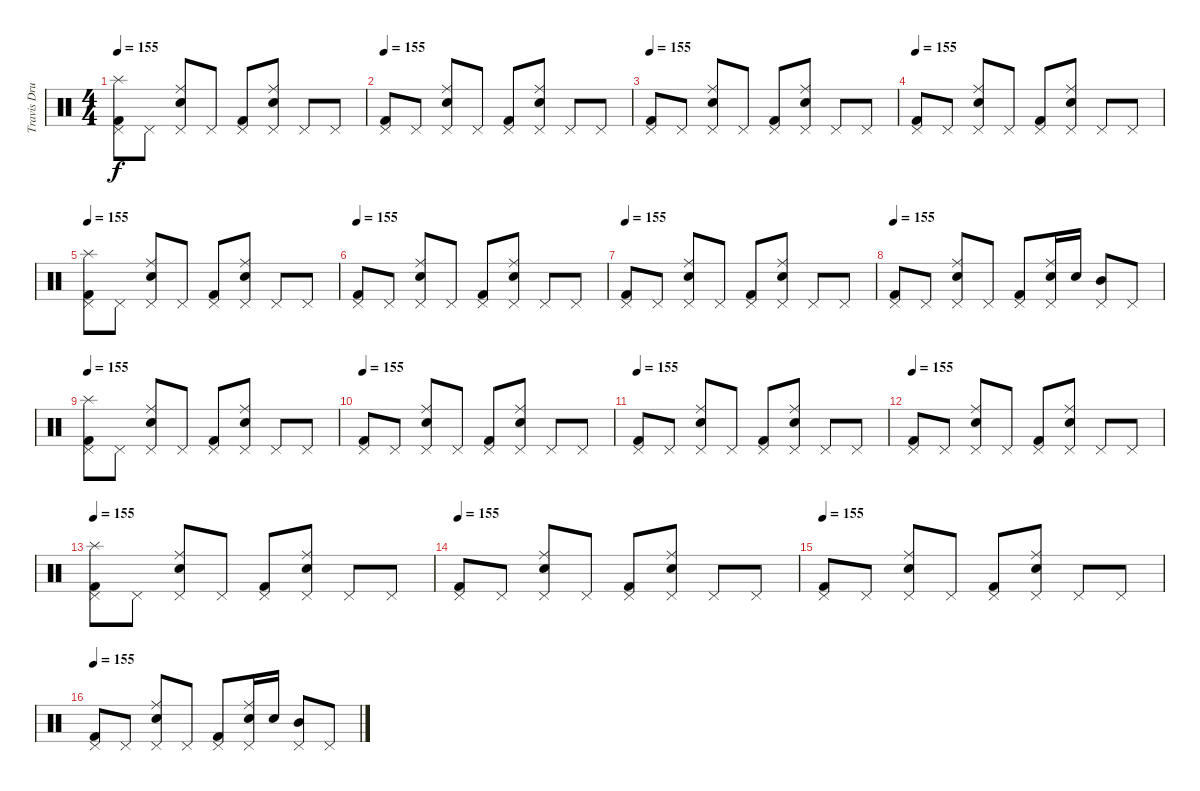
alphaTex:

\track ("Travis Drums" "Travis Dru") {instrument percussion}
\staff {score}
\articulation defaults
\ts (4 4)
\tempo 155
\clef neutral
\ks c
("Splash (hit)" "Pedal Hi-Hat (hit)" "Kick (hit) 2").8{dy f} "Pedal Hi-Hat (hit)".8 ("Electric Snare (hit)" "Pedal Hi-Hat (hit)" "Ride (middle)").8 "Pedal Hi-Hat (hit)".8 ("Pedal Hi-Hat (hit)" "Kick (hit) 2").8 ("Electric Snare (hit)" "Pedal Hi-Hat (hit)" "Ride (middle)").8 "Pedal Hi-Hat (hit)".8 "Pedal Hi-Hat (hit)".8 |
\tempo 155
("Pedal Hi-Hat (hit)" "Kick (hit) 2").8 "Pedal Hi-Hat (hit)".8 ("Electric Snare (hit)" "Pedal Hi-Hat (hit)" "Ride (middle)").8 "Pedal Hi-Hat (hit)".8 ("Pedal Hi-Hat (hit)" "Kick (hit) 2").8 ("Electric Snare (hit)" "Pedal Hi-Hat (hit)" "Ride (middle)").8 "Pedal Hi-Hat (hit)".8 "Pedal Hi-Hat (hit)".8 |
\tempo 155
("Pedal Hi-Hat (hit)" "Kick (hit) 2").8 "Pedal Hi-Hat (hit)".8 ("Electric Snare (hit)" "Pedal Hi-Hat (hit)" "Ride (middle)").8 "Pedal Hi-Hat (hit)".8 ("Pedal Hi-Hat (hit)" "Kick (hit) 2").8 ("Electric Snare (hit)" "Pedal Hi-Hat (hit)" "Ride (middle)").8 "Pedal Hi-Hat (hit)".8 "Pedal Hi-Hat (hit)".8 |
\tempo 155
("Pedal Hi-Hat (hit)" "Kick (hit) 2").8 "Pedal Hi-Hat (hit)".8 ("Electric Snare (hit)" "Pedal Hi-Hat (hit)" "Ride (middle)").8 "Pedal Hi-Hat (hit)".8 ("Pedal Hi-Hat (hit)" "Kick (hit) 2").8 ("Electric Snare (hit)" "Pedal Hi-Hat (hit)" "Ride (middle)").8 "Pedal Hi-Hat (hit)".8 "Pedal Hi-Hat (hit)".8 |
\tempo 155
("Splash (hit)" "Pedal Hi-Hat (hit)" "Kick (hit) 2").8 "Pedal Hi-Hat (hit)".8 ("Electric Snare (hit)" "Pedal Hi-Hat (hit)" "Ride (middle)").8 "Pedal Hi-Hat (hit)".8 ("Pedal Hi-Hat (hit)" "Kick (hit) 2").8 ("Electric Snare (hit)" "Pedal Hi-Hat (hit)" "Ride (middle)").8 "Pedal Hi-Hat (hit)".8 "Pedal Hi-Hat (hit)".8 |
\tempo 155
("Pedal Hi-Hat (hit)" "Kick (hit) 2").8 "Pedal Hi-Hat (hit)".8 ("Electric Snare (hit)" "Pedal Hi-Hat (hit)" "Ride (middle)").8 "Pedal Hi-Hat (hit)".8 ("Pedal Hi-Hat (hit)" "Kick (hit) 2").8 ("Electric Snare (hit)" "Pedal Hi-Hat (hit)" "Ride (middle)").8 "Pedal Hi-Hat (hit)".8 "Pedal Hi-Hat (hit)".8 |
\tempo 155
("Pedal Hi-Hat (hit)" "Kick (hit) 2").8 "Pedal Hi-Hat (hit)".8 ("Electric Snare (hit)" "Pedal Hi-Hat (hit)" "Ride (middle)").8 "Pedal Hi-Hat (hit)".8 ("Pedal Hi-Hat (hit)" "Kick (hit) 2").8 ("Electric Snare (hit)" "Pedal Hi-Hat (hit)" "Ride (middle)").8 "Pedal Hi-Hat (hit)".8 "Pedal Hi-Hat (hit)".8 |
\tempo 155
("Pedal Hi-Hat (hit)" "Kick (hit) 2").8 "Pedal Hi-Hat (hit)".8 ("Electric Snare (hit)" "Pedal Hi-Hat (hit)" "Ride (middle)").8 "Pedal Hi-Hat (hit)".8 ("Pedal Hi-Hat (hit)" "Kick (hit) 2").8 ("Electric Snare (hit)" "Pedal Hi-Hat (hit)" "Ride (middle)").16 "Electric Snare (hit)".16 ("Mid Tom (hit)" "Pedal Hi-Hat (hit)").8 "Pedal Hi-Hat (hit)".8 |
\tempo 155
("Splash (hit)" "Pedal Hi-Hat (hit)" "Kick (hit) 2").8 "Pedal Hi-Hat (hit)".8 ("Electric Snare (hit)" "Pedal Hi-Hat (hit)" "Ride (middle)").8 "Pedal Hi-Hat (hit)".8 ("Pedal Hi-Hat (hit)" "Kick (hit) 2").8 ("Electric Snare (hit)" "Pedal Hi-Hat (hit)" "Ride (middle)").8 "Pedal Hi-Hat (hit)".8 "Pedal Hi-Hat (hit)".8 |
\tempo 155
("Pedal Hi-Hat (hit)" "Kick (hit) 2").8 "Pedal Hi-Hat (hit)".8 ("Electric Snare (hit)" "Pedal Hi-Hat (hit)" "Ride (middle)").8 "Pedal Hi-Hat (hit)".8 ("Pedal Hi-Hat (hit)" "Kick (hit) 2").8 ("Electric Snare (hit)" "Pedal Hi-Hat (hit)" "Ride (middle)").8 "Pedal Hi-Hat (hit)".8 "Pedal Hi-Hat (hit)".8 |
\tempo 155
("Pedal Hi-Hat (hit)" "Kick (hit) 2").8 "Pedal Hi-Hat (hit)".8 ("Electric Snare (hit)" "Pedal Hi-Hat (hit)" "Ride (middle)").8 "Pedal Hi-Hat (hit)".8 ("Pedal Hi-Hat (hit)" "Kick (hit) 2").8 ("Electric Snare (hit)" "Pedal Hi-Hat (hit)" "Ride (middle)").8 "Pedal Hi-Hat (hit)".8 "Pedal Hi-Hat (hit)".8 |
\tempo 155
("Pedal Hi-Hat (hit)" "Kick (hit) 2").8 "Pedal Hi-Hat (hit)".8 ("Electric Snare (hit)" "Pedal Hi-Hat (hit)" "Ride (middle)").8 "Pedal Hi-Hat (hit)".8 ("Pedal Hi-Hat (hit)" "Kick (hit) 2").8 ("Electric Snare (hit)" "Pedal Hi-Hat (hit)" "Ride (middle)").8 "Pedal Hi-Hat (hit)".8 "Pedal Hi-Hat (hit)".8 |
\tempo 155
("Splash (hit)" "Pedal Hi-Hat (hit)" "Kick (hit) 2").8 "Pedal Hi-Hat (hit)".8 ("Electric Snare (hit)" "Pedal Hi-Hat (hit)" "Ride (middle)").8 "Pedal Hi-Hat (hit)".8 ("Pedal Hi-Hat (hit)" "Kick (hit) 2").8 ("Electric Snare (hit)" "Pedal Hi-Hat (hit)" "Ride (middle)").8 "Pedal Hi-Hat (hit)".8 "Pedal Hi-Hat (hit)".8 |
\tempo 155
("Pedal Hi-Hat (hit)" "Kick (hit) 2").8 "Pedal Hi-Hat (hit)".8 ("Electric Snare (hit)" "Pedal Hi-Hat (hit)" "Ride (middle)").8 "Pedal Hi-Hat (hit)".8 ("Pedal Hi-Hat (hit)" "Kick (hit) 2").8 ("Electric Snare (hit)" "Pedal Hi-Hat (hit)" "Ride (middle)").8 "Pedal Hi-Hat (hit)".8 "Pedal Hi-Hat (hit)".8 |
\tempo 155
("Pedal Hi-Hat (hit)" "Kick (hit) 2").8 "Pedal Hi-Hat (hit)".8 ("Electric Snare (hit)" "Pedal Hi-Hat (hit)" "Ride (middle)").8 "Pedal Hi-Hat (hit)".8 ("Pedal Hi-Hat (hit)" "Kick (hit) 2").8 ("Electric Snare (hit)" "Pedal Hi-Hat (hit)" "Ride (middle)").8 "Pedal Hi-Hat (hit)".8 "Pedal Hi-Hat (hit)".8 |
\tempo 155
("Pedal Hi-Hat (hit)" "Kick (hit) 2").8 "Pedal Hi-Hat (hit)".8 ("Electric Snare (hit)" "Pedal Hi-Hat (hit)" "Ride (middle)").8 "Pedal Hi-Hat (hit)".8 ("Pedal Hi-Hat (hit)" "Kick (hit) 2").8 ("Electric Snare (hit)" "Pedal Hi-Hat (hit)" "Ride (middle)").16 "Electric Snare (hit)".16 ("Mid Tom (hit)" "Pedal Hi-Hat (hit)").8 "Pedal Hi-Hat (hit)".8
